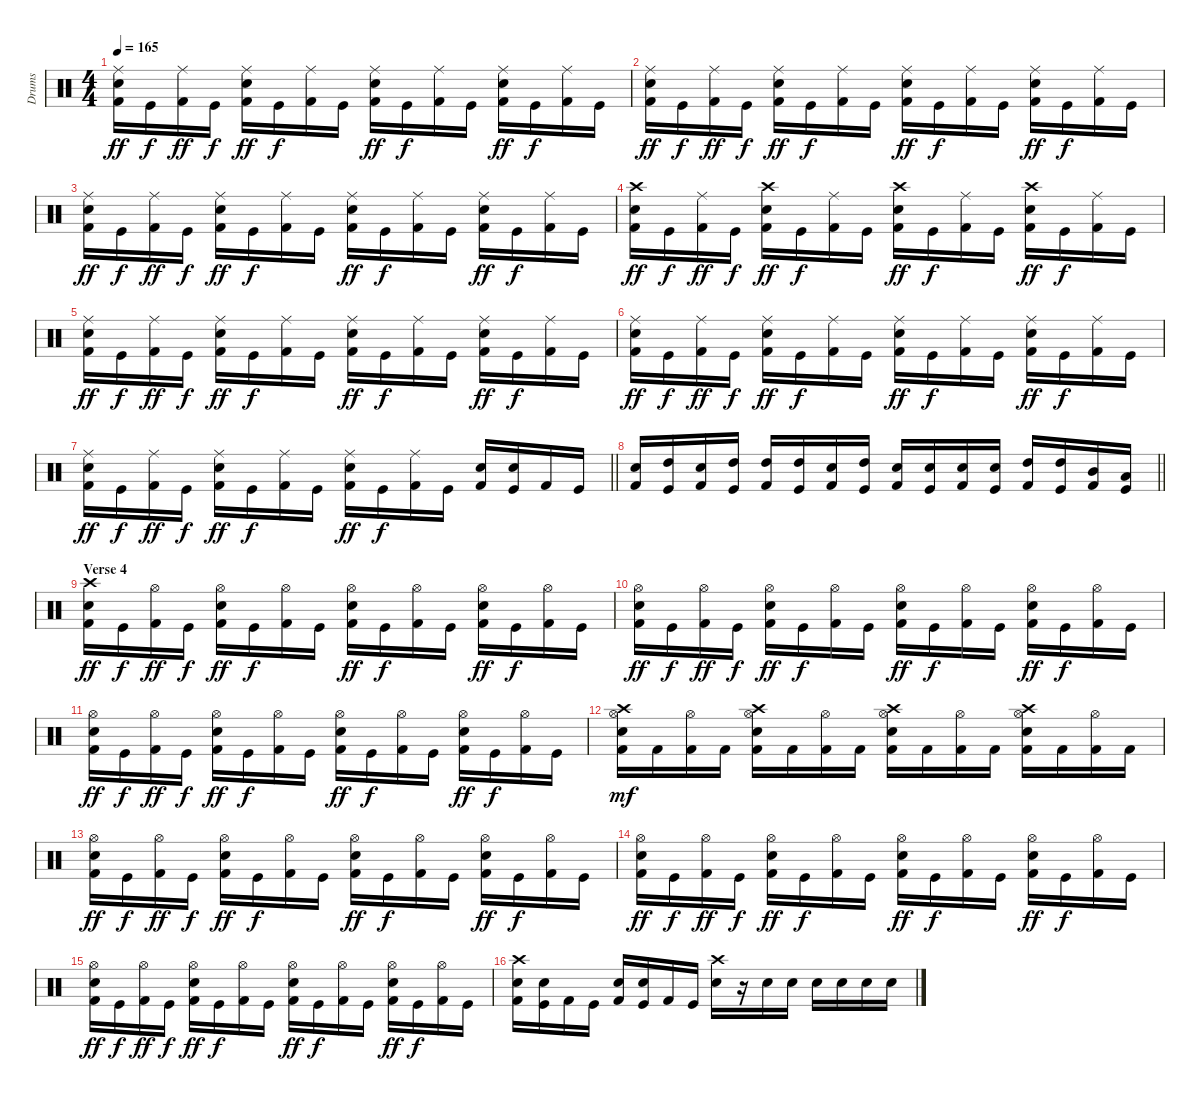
\track ("Drums" "Drums") {instrument percussion}
\staff {score}
\articulation defaults
\ts (4 4)
\tempo 165
\clef neutral
\ks c
("Ride (middle)" "Snare (hit) 2" "Kick (hit) 2").16{dy ff} "Kick (hit)".16{dy f} ("Ride (middle)" "Kick (hit) 2").16{dy ff} "Kick (hit)".16{dy f} ("Ride (middle)" "Snare (hit) 2" "Kick (hit) 2").16{dy ff} "Kick (hit)".16{dy f} ("Ride (middle)" "Kick (hit) 2").16 "Kick (hit)".16 ("Ride (middle)" "Snare (hit) 2" "Kick (hit) 2").16{dy ff} "Kick (hit)".16{dy f} ("Ride (middle)" "Kick (hit) 2").16 "Kick (hit)".16 ("Ride (middle)" "Snare (hit) 2" "Kick (hit) 2").16{dy ff} "Kick (hit)".16{dy f} ("Ride (middle)" "Kick (hit) 2").16 "Kick (hit)".16 |
("Ride (middle)" "Snare (hit) 2" "Kick (hit) 2").16{dy ff} "Kick (hit)".16{dy f} ("Ride (middle)" "Kick (hit) 2").16{dy ff} "Kick (hit)".16{dy f} ("Ride (middle)" "Snare (hit) 2" "Kick (hit) 2").16{dy ff} "Kick (hit)".16{dy f} ("Ride (middle)" "Kick (hit) 2").16 "Kick (hit)".16 ("Ride (middle)" "Snare (hit) 2" "Kick (hit) 2").16{dy ff} "Kick (hit)".16{dy f} ("Ride (middle)" "Kick (hit) 2").16 "Kick (hit)".16 ("Ride (middle)" "Snare (hit) 2" "Kick (hit) 2").16{dy ff} "Kick (hit)".16{dy f} ("Ride (middle)" "Kick (hit) 2").16 "Kick (hit)".16 |
("Ride (middle)" "Snare (hit) 2" "Kick (hit) 2").16{dy ff} "Kick (hit)".16{dy f} ("Ride (middle)" "Kick (hit) 2").16{dy ff} "Kick (hit)".16{dy f} ("Ride (middle)" "Snare (hit) 2" "Kick (hit) 2").16{dy ff} "Kick (hit)".16{dy f} ("Ride (middle)" "Kick (hit) 2").16 "Kick (hit)".16 ("Ride (middle)" "Snare (hit) 2" "Kick (hit) 2").16{dy ff} "Kick (hit)".16{dy f} ("Ride (middle)" "Kick (hit) 2").16 "Kick (hit)".16 ("Ride (middle)" "Snare (hit) 2" "Kick (hit) 2").16{dy ff} "Kick (hit)".16{dy f} ("Ride (middle)" "Kick (hit) 2").16 "Kick (hit)".16 |
("Crash high (hit)" "Snare (hit) 2" "Kick (hit) 2").16{dy ff} "Kick (hit)".16{dy f} ("Ride (middle)" "Kick (hit) 2").16{dy ff} "Kick (hit)".16{dy f} ("Crash high (hit)" "Snare (hit) 2" "Kick (hit) 2").16{dy ff} "Kick (hit)".16{dy f} ("Ride (middle)" "Kick (hit) 2").16 "Kick (hit)".16 ("Crash high (hit)" "Snare (hit) 2" "Kick (hit) 2").16{dy ff} "Kick (hit)".16{dy f} ("Ride (middle)" "Kick (hit) 2").16 "Kick (hit)".16 ("Crash high (hit)" "Snare (hit) 2" "Kick (hit) 2").16{dy ff} "Kick (hit)".16{dy f} ("Ride (middle)" "Kick (hit) 2").16 "Kick (hit)".16 |
("Ride (middle)" "Snare (hit) 2" "Kick (hit) 2").16{dy ff} "Kick (hit)".16{dy f} ("Ride (middle)" "Kick (hit) 2").16{dy ff} "Kick (hit)".16{dy f} ("Ride (middle)" "Snare (hit) 2" "Kick (hit) 2").16{dy ff} "Kick (hit)".16{dy f} ("Ride (middle)" "Kick (hit) 2").16 "Kick (hit)".16 ("Ride (middle)" "Snare (hit) 2" "Kick (hit) 2").16{dy ff} "Kick (hit)".16{dy f} ("Ride (middle)" "Kick (hit) 2").16 "Kick (hit)".16 ("Ride (middle)" "Snare (hit) 2" "Kick (hit) 2").16{dy ff} "Kick (hit)".16{dy f} ("Ride (middle)" "Kick (hit) 2").16 "Kick (hit)".16 |
("Ride (middle)" "Snare (hit) 2" "Kick (hit) 2").16{dy ff} "Kick (hit)".16{dy f} ("Ride (middle)" "Kick (hit) 2").16{dy ff} "Kick (hit)".16{dy f} ("Ride (middle)" "Snare (hit) 2" "Kick (hit) 2").16{dy ff} "Kick (hit)".16{dy f} ("Ride (middle)" "Kick (hit) 2").16 "Kick (hit)".16 ("Ride (middle)" "Snare (hit) 2" "Kick (hit) 2").16{dy ff} "Kick (hit)".16{dy f} ("Ride (middle)" "Kick (hit) 2").16 "Kick (hit)".16 ("Ride (middle)" "Snare (hit) 2" "Kick (hit) 2").16{dy ff} "Kick (hit)".16{dy f} ("Ride (middle)" "Kick (hit) 2").16 "Kick (hit)".16 |
\barLineRight lightlight
("Ride (middle)" "Snare (hit) 2" "Kick (hit) 2").16{dy ff} "Kick (hit)".16{dy f} ("Ride (middle)" "Kick (hit) 2").16{dy ff} "Kick (hit)".16{dy f} ("Ride (middle)" "Snare (hit) 2" "Kick (hit) 2").16{dy ff} "Kick (hit)".16{dy f} ("Ride (middle)" "Kick (hit) 2").16 "Kick (hit)".16 ("Ride (middle)" "Snare (hit) 2" "Kick (hit) 2").16{dy ff} "Kick (hit)".16{dy f} ("Ride (middle)" "Kick (hit) 2").16 "Kick (hit)".16 ("Snare (hit) 2" "Kick (hit) 2").16 ("Snare (hit) 2" "Kick (hit)").16 "Kick (hit) 2".16 "Kick (hit)".16 |
\barLineRight lightlight
("Snare (hit) 2" "Kick (hit) 2").16 ("High Tom (hit)" "Kick (hit)").16 ("Snare (hit) 2" "Kick (hit) 2").16 ("High Tom (hit)" "Kick (hit)").16 ("High Tom (hit)" "Kick (hit) 2").16 ("High Tom (hit)" "Kick (hit)").16 ("Snare (hit) 2" "Kick (hit) 2").16 ("High Tom (hit)" "Kick (hit)").16 ("Snare (hit) 2" "Kick (hit) 2").16 ("Snare (hit) 2" "Kick (hit)").16 ("Snare (hit) 2" "Kick (hit) 2").16 ("Snare (hit) 2" "Kick (hit)").16 ("High Tom (hit)" "Kick (hit) 2").16 ("High Tom (hit)" "Kick (hit)").16 ("Mid Tom (hit)" "Kick (hit) 2").16 ("Low Tom (hit)" "Kick (hit)").16 |
\section ("" "Verse 4")
("Crash high (hit)" "Snare (hit) 2" "Kick (hit) 2").16{dy ff} "Kick (hit)".16{dy f} ("Hi-Hat (open)" "Kick (hit) 2").16{dy ff} "Kick (hit)".16{dy f} ("Hi-Hat (open)" "Snare (hit) 2" "Kick (hit) 2").16{dy ff} "Kick (hit)".16{dy f} ("Hi-Hat (open)" "Kick (hit) 2").16 "Kick (hit)".16 ("Hi-Hat (open)" "Snare (hit) 2" "Kick (hit) 2").16{dy ff} "Kick (hit)".16{dy f} ("Hi-Hat (open)" "Kick (hit) 2").16 "Kick (hit)".16 ("Hi-Hat (open)" "Snare (hit) 2" "Kick (hit) 2").16{dy ff} "Kick (hit)".16{dy f} ("Hi-Hat (open)" "Kick (hit) 2").16 "Kick (hit)".16 |
("Hi-Hat (open)" "Snare (hit) 2" "Kick (hit) 2").16{dy ff} "Kick (hit)".16{dy f} ("Hi-Hat (open)" "Kick (hit) 2").16{dy ff} "Kick (hit)".16{dy f} ("Hi-Hat (open)" "Snare (hit) 2" "Kick (hit) 2").16{dy ff} "Kick (hit)".16{dy f} ("Hi-Hat (open)" "Kick (hit) 2").16 "Kick (hit)".16 ("Hi-Hat (open)" "Snare (hit) 2" "Kick (hit) 2").16{dy ff} "Kick (hit)".16{dy f} ("Hi-Hat (open)" "Kick (hit) 2").16 "Kick (hit)".16 ("Hi-Hat (open)" "Snare (hit) 2" "Kick (hit) 2").16{dy ff} "Kick (hit)".16{dy f} ("Hi-Hat (open)" "Kick (hit) 2").16 "Kick (hit)".16 |
("Hi-Hat (open)" "Snare (hit) 2" "Kick (hit) 2").16{dy ff} "Kick (hit)".16{dy f} ("Hi-Hat (open)" "Kick (hit) 2").16{dy ff} "Kick (hit)".16{dy f} ("Hi-Hat (open)" "Snare (hit) 2" "Kick (hit) 2").16{dy ff} "Kick (hit)".16{dy f} ("Hi-Hat (open)" "Kick (hit) 2").16 "Kick (hit)".16 ("Hi-Hat (open)" "Snare (hit) 2" "Kick (hit) 2").16{dy ff} "Kick (hit)".16{dy f} ("Hi-Hat (open)" "Kick (hit) 2").16 "Kick (hit)".16 ("Hi-Hat (open)" "Snare (hit) 2" "Kick (hit) 2").16{dy ff} "Kick (hit)".16{dy f} ("Hi-Hat (open)" "Kick (hit) 2").16 "Kick (hit)".16 |
("Hi-Hat (open)" "Snare (hit) 2" "Crash high (hit)" "Kick (hit) 2").16{dy mf} "Kick (hit) 2".16 ("Hi-Hat (open)" "Kick (hit) 2").16 "Kick (hit) 2".16 ("Hi-Hat (open)" "Snare (hit) 2" "Crash high (hit)" "Kick (hit) 2").16 "Kick (hit) 2".16 ("Hi-Hat (open)" "Kick (hit) 2").16 "Kick (hit) 2".16 ("Hi-Hat (open)" "Snare (hit) 2" "Crash high (hit)" "Kick (hit) 2").16 "Kick (hit) 2".16 ("Hi-Hat (open)" "Kick (hit) 2").16 "Kick (hit) 2".16 ("Hi-Hat (open)" "Snare (hit) 2" "Crash high (hit)" "Kick (hit) 2").16 "Kick (hit) 2".16 ("Hi-Hat (open)" "Kick (hit) 2").16 "Kick (hit) 2".16 |
("Hi-Hat (open)" "Snare (hit) 2" "Kick (hit) 2").16{dy ff} "Kick (hit)".16{dy f} ("Hi-Hat (open)" "Kick (hit) 2").16{dy ff} "Kick (hit)".16{dy f} ("Hi-Hat (open)" "Snare (hit) 2" "Kick (hit) 2").16{dy ff} "Kick (hit)".16{dy f} ("Hi-Hat (open)" "Kick (hit) 2").16 "Kick (hit)".16 ("Hi-Hat (open)" "Snare (hit) 2" "Kick (hit) 2").16{dy ff} "Kick (hit)".16{dy f} ("Hi-Hat (open)" "Kick (hit) 2").16 "Kick (hit)".16 ("Hi-Hat (open)" "Snare (hit) 2" "Kick (hit) 2").16{dy ff} "Kick (hit)".16{dy f} ("Hi-Hat (open)" "Kick (hit) 2").16 "Kick (hit)".16 |
("Hi-Hat (open)" "Snare (hit) 2" "Kick (hit) 2").16{dy ff} "Kick (hit)".16{dy f} ("Hi-Hat (open)" "Kick (hit) 2").16{dy ff} "Kick (hit)".16{dy f} ("Hi-Hat (open)" "Snare (hit) 2" "Kick (hit) 2").16{dy ff} "Kick (hit)".16{dy f} ("Hi-Hat (open)" "Kick (hit) 2").16 "Kick (hit)".16 ("Hi-Hat (open)" "Snare (hit) 2" "Kick (hit) 2").16{dy ff} "Kick (hit)".16{dy f} ("Hi-Hat (open)" "Kick (hit) 2").16 "Kick (hit)".16 ("Hi-Hat (open)" "Snare (hit) 2" "Kick (hit) 2").16{dy ff} "Kick (hit)".16{dy f} ("Hi-Hat (open)" "Kick (hit) 2").16 "Kick (hit)".16 |
("Hi-Hat (open)" "Snare (hit) 2" "Kick (hit) 2").16{dy ff} "Kick (hit)".16{dy f} ("Hi-Hat (open)" "Kick (hit) 2").16{dy ff} "Kick (hit)".16{dy f} ("Hi-Hat (open)" "Snare (hit) 2" "Kick (hit) 2").16{dy ff} "Kick (hit)".16{dy f} ("Hi-Hat (open)" "Kick (hit) 2").16 "Kick (hit)".16 ("Hi-Hat (open)" "Snare (hit) 2" "Kick (hit) 2").16{dy ff} "Kick (hit)".16{dy f} ("Hi-Hat (open)" "Kick (hit) 2").16 "Kick (hit)".16 ("Hi-Hat (open)" "Snare (hit) 2" "Kick (hit) 2").16{dy ff} "Kick (hit)".16{dy f} ("Hi-Hat (open)" "Kick (hit) 2").16 "Kick (hit)".16 |
("Crash high (hit)" "Snare (hit) 2" "Kick (hit) 2").16 ("Snare (hit) 2" "Kick (hit)").16 "Kick (hit) 2".16 "Kick (hit)".16 ("Snare (hit) 2" "Kick (hit) 2").16 ("Snare (hit) 2" "Kick (hit)").16 "Kick (hit) 2".16 "Kick (hit)".16 ("Crash high (hit)" "Snare (hit) 2").16 r.16 "Snare (hit) 2".16 "Snare (hit) 2".16 "Snare (hit) 2".16 "Snare (hit) 2".16 "Snare (hit) 2".16 "Snare (hit) 2".16
